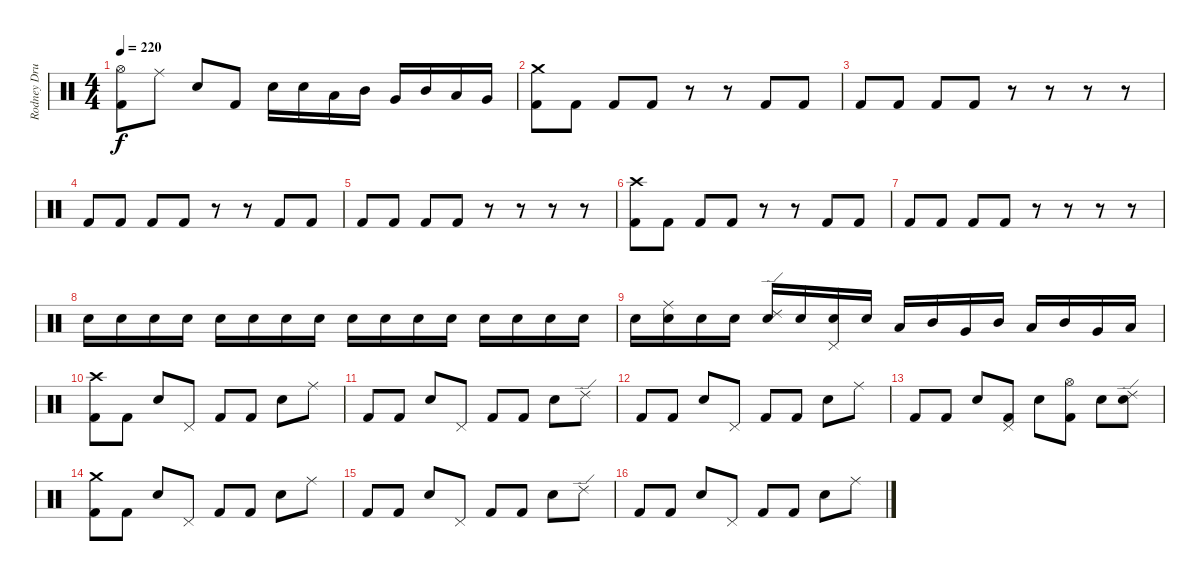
\track ("Rodney Drums" "Rodney Dru") {instrument percussion}
\staff {score}
\articulation defaults
\ts (4 4)
\tempo 220
\clef neutral
\ks c
("Hi-Hat (open)" "Kick (hit) 2").8{dy f} "Ride (middle)".8 "Electric Snare (hit)".8 "Kick (hit) 2".8 "Electric Snare (hit)".16 "Electric Snare (hit)".16 "Low Tom (hit)".16 "Mid Tom (hit)".16 "Very Low Tom (hit)".16 "Mid Tom (hit)".16 "Low Tom (hit)".16 "Very Low Tom (hit)".16 |
("Crash medium (hit)" "Kick (hit) 2").8 "Kick (hit) 2".8 "Kick (hit) 2".8 "Kick (hit) 2".8 r.8 r.8 "Kick (hit) 2".8 "Kick (hit) 2".8 |
"Kick (hit) 2".8 "Kick (hit) 2".8 "Kick (hit) 2".8 "Kick (hit) 2".8 r.8 r.8 r.8 r.8 |
"Kick (hit) 2".8 "Kick (hit) 2".8 "Kick (hit) 2".8 "Kick (hit) 2".8 r.8 r.8 "Kick (hit) 2".8 "Kick (hit) 2".8 |
"Kick (hit) 2".8 "Kick (hit) 2".8 "Kick (hit) 2".8 "Kick (hit) 2".8 r.8 r.8 r.8 r.8 |
("Crash high (hit)" "Kick (hit) 2").8 "Kick (hit) 2".8 "Kick (hit) 2".8 "Kick (hit) 2".8 r.8 r.8 "Kick (hit) 2".8 "Kick (hit) 2".8 |
"Kick (hit) 2".8 "Kick (hit) 2".8 "Kick (hit) 2".8 "Kick (hit) 2".8 r.8 r.8 r.8 r.8 |
"Electric Snare (hit)".16 "Electric Snare (hit)".16 "Electric Snare (hit)".16 "Electric Snare (hit)".16 "Electric Snare (hit)".16 "Electric Snare (hit)".16 "Electric Snare (hit)".16 "Electric Snare (hit)".16 "Electric Snare (hit)".16 "Electric Snare (hit)".16 "Electric Snare (hit)".16 "Electric Snare (hit)".16 "Electric Snare (hit)".16 "Electric Snare (hit)".16 "Electric Snare (hit)".16 "Electric Snare (hit)".16 |
"Electric Snare (hit)".16 ("Ride (middle)" "Electric Snare (hit)").16 "Electric Snare (hit)".16 "Electric Snare (hit)".16 ("Ride (edge) 2" "Electric Snare (hit)").16 "Electric Snare (hit)".16 ("Pedal Hi-Hat (hit)" "Electric Snare (hit)").16 "Electric Snare (hit)".16 "Low Tom (hit)".16 "Mid Tom (hit)".16 "Very Low Tom (hit)".16 "Mid Tom (hit)".16 "Low Tom (hit)".16 "Mid Tom (hit)".16 "Very Low Tom (hit)".16 "Low Tom (hit)".16 |
("Crash high (hit)" "Kick (hit) 2").8 "Kick (hit) 2".8 "Electric Snare (hit)".8 "Pedal Hi-Hat (hit)".8 "Kick (hit) 2".8 "Kick (hit) 2".8 "Electric Snare (hit)".8 "Ride (middle)".8 |
"Kick (hit) 2".8 "Kick (hit) 2".8 "Electric Snare (hit)".8 "Pedal Hi-Hat (hit)".8 "Kick (hit) 2".8 "Kick (hit) 2".8 "Electric Snare (hit)".8 "Ride (edge) 2".8 |
"Kick (hit) 2".8 "Kick (hit) 2".8 "Electric Snare (hit)".8 "Pedal Hi-Hat (hit)".8 "Kick (hit) 2".8 "Kick (hit) 2".8 "Electric Snare (hit)".8 "Ride (middle)".8 |
"Kick (hit) 2".8 "Kick (hit) 2".8 "Electric Snare (hit)".8 ("Pedal Hi-Hat (hit)" "Kick (hit) 2").8 "Electric Snare (hit)".8 ("Hi-Hat (open)" "Kick (hit) 2").8 "Electric Snare (hit)".8 ("Ride (edge) 2" "Electric Snare (hit)").8 |
("Crash medium (hit)" "Kick (hit) 2").8 "Kick (hit) 2".8 "Electric Snare (hit)".8 "Pedal Hi-Hat (hit)".8 "Kick (hit) 2".8 "Kick (hit) 2".8 "Electric Snare (hit)".8 "Ride (middle)".8 |
"Kick (hit) 2".8 "Kick (hit) 2".8 "Electric Snare (hit)".8 "Pedal Hi-Hat (hit)".8 "Kick (hit) 2".8 "Kick (hit) 2".8 "Electric Snare (hit)".8 "Ride (edge) 2".8 |
"Kick (hit) 2".8 "Kick (hit) 2".8 "Electric Snare (hit)".8 "Pedal Hi-Hat (hit)".8 "Kick (hit) 2".8 "Kick (hit) 2".8 "Electric Snare (hit)".8 "Ride (middle)".8
